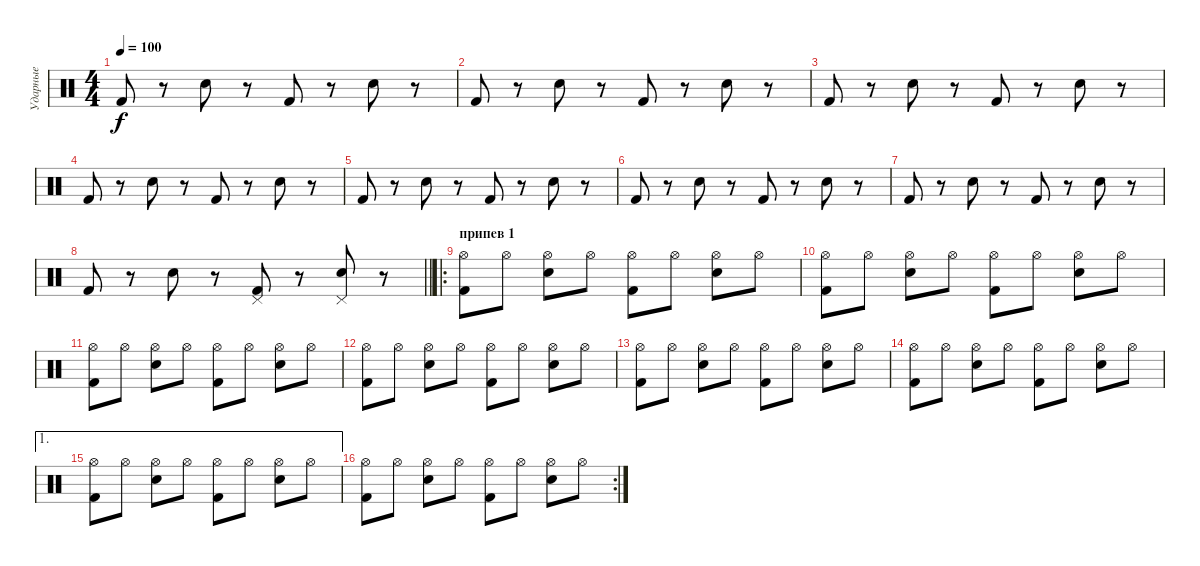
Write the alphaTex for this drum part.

\track ("Ударные" "Ударные") {instrument percussion}
\staff {score}
\articulation defaults
\ts (4 4)
\tempo 100
\clef neutral
\ks c "Kick (hit) 2".8{dy f}
r.8 "Hand Clap (hit)".8 r.8 "Kick (hit) 2".8 r.8 "Hand Clap (hit)".8 r.8 |
"Kick (hit) 2".8 r.8 "Hand Clap (hit)".8 r.8 "Kick (hit) 2".8 r.8 "Hand Clap (hit)".8 r.8 |
"Kick (hit) 2".8 r.8 "Hand Clap (hit)".8 r.8 "Kick (hit) 2".8 r.8 "Hand Clap (hit)".8 r.8 |
"Kick (hit) 2".8 r.8 "Hand Clap (hit)".8 r.8 "Kick (hit) 2".8 r.8 "Hand Clap (hit)".8 r.8 |
"Kick (hit) 2".8 r.8 "Hand Clap (hit)".8 r.8 "Kick (hit) 2".8 r.8 "Hand Clap (hit)".8 r.8 |
"Kick (hit) 2".8 r.8 "Hand Clap (hit)".8 r.8 "Kick (hit) 2".8 r.8 "Hand Clap (hit)".8 r.8 |
"Kick (hit) 2".8 r.8 "Hand Clap (hit)".8 r.8 "Kick (hit) 2".8 r.8 "Hand Clap (hit)".8 r.8 |
\barLineRight lightlight "Kick (hit) 2".8
r.8 "Hand Clap (hit)".8 r.8 ("Pedal Hi-Hat (hit)" "Kick (hit) 2").8 r.8 ("Pedal Hi-Hat (hit)" "Hand Clap (hit)").8 r.8 |
\ro
\section ("" "припев 1")
("Hi-Hat (open)" "Kick (hit) 2").8 "Hi-Hat (open)".8 ("Hi-Hat (open)" "Snare (hit) 2").8 "Hi-Hat (open)".8 ("Hi-Hat (open)" "Kick (hit) 2").8 "Hi-Hat (open)".8 ("Hi-Hat (open)" "Snare (hit) 2").8 "Hi-Hat (open)".8 |
("Hi-Hat (open)" "Kick (hit) 2").8 "Hi-Hat (open)".8 ("Hi-Hat (open)" "Snare (hit) 2").8 "Hi-Hat (open)".8 ("Hi-Hat (open)" "Kick (hit) 2").8 "Hi-Hat (open)".8 ("Hi-Hat (open)" "Snare (hit) 2").8 "Hi-Hat (open)".8 |
("Hi-Hat (open)" "Kick (hit) 2").8 "Hi-Hat (open)".8 ("Hi-Hat (open)" "Snare (hit) 2").8 "Hi-Hat (open)".8 ("Hi-Hat (open)" "Kick (hit) 2").8 "Hi-Hat (open)".8 ("Hi-Hat (open)" "Snare (hit) 2").8 "Hi-Hat (open)".8 |
("Hi-Hat (open)" "Kick (hit) 2").8 "Hi-Hat (open)".8 ("Hi-Hat (open)" "Snare (hit) 2").8 "Hi-Hat (open)".8 ("Hi-Hat (open)" "Kick (hit) 2").8 "Hi-Hat (open)".8 ("Hi-Hat (open)" "Snare (hit) 2").8 "Hi-Hat (open)".8 |
("Hi-Hat (open)" "Kick (hit) 2").8 "Hi-Hat (open)".8 ("Hi-Hat (open)" "Snare (hit) 2").8 "Hi-Hat (open)".8 ("Hi-Hat (open)" "Kick (hit) 2").8 "Hi-Hat (open)".8 ("Hi-Hat (open)" "Snare (hit) 2").8 "Hi-Hat (open)".8 |
("Hi-Hat (open)" "Kick (hit) 2").8 "Hi-Hat (open)".8 ("Hi-Hat (open)" "Snare (hit) 2").8 "Hi-Hat (open)".8 ("Hi-Hat (open)" "Kick (hit) 2").8 "Hi-Hat (open)".8 ("Hi-Hat (open)" "Snare (hit) 2").8 "Hi-Hat (open)".8 |
\ae 1
("Hi-Hat (open)" "Kick (hit) 2").8 "Hi-Hat (open)".8 ("Hi-Hat (open)" "Snare (hit) 2").8 "Hi-Hat (open)".8 ("Hi-Hat (open)" "Kick (hit) 2").8 "Hi-Hat (open)".8 ("Hi-Hat (open)" "Snare (hit) 2").8 "Hi-Hat (open)".8 |
\rc 2
("Hi-Hat (open)" "Kick (hit) 2").8 "Hi-Hat (open)".8 ("Hi-Hat (open)" "Snare (hit) 2").8 "Hi-Hat (open)".8 ("Hi-Hat (open)" "Kick (hit) 2").8 "Hi-Hat (open)".8 ("Hi-Hat (open)" "Snare (hit) 2").8 "Hi-Hat (open)".8
